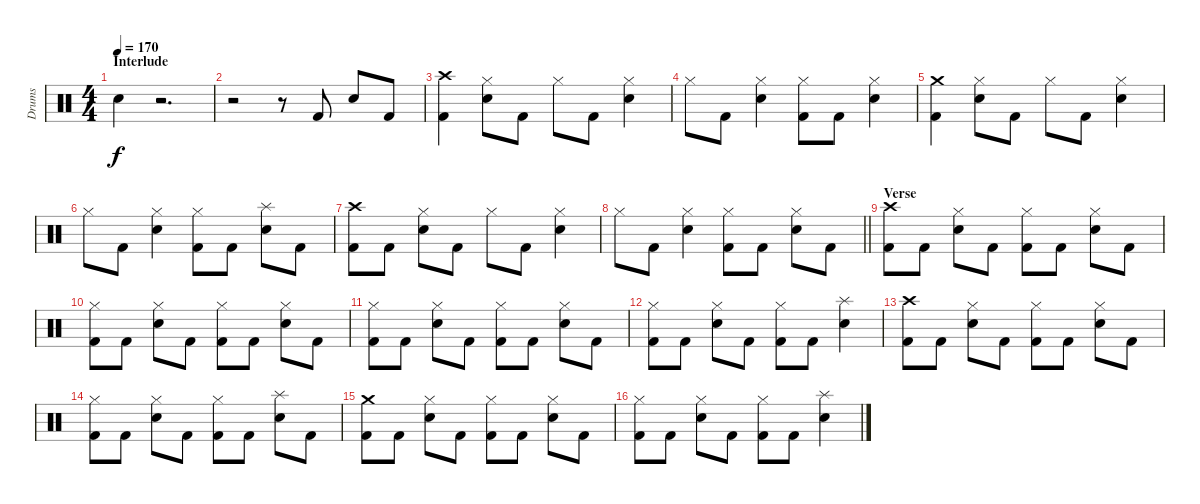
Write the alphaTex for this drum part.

\track ("Drums" "Drums") {instrument percussion}
\staff {score}
\articulation defaults
\ts (4 4)
\section ("" "Interlude")
\tempo 170
\clef neutral
\ks c "Electric Snare (hit)".4{dy f}
r.2{d} |
r.2 r.8 "Kick (hit) 2".8 "Electric Snare (hit)".8 "Kick (hit) 2".8 |
("Kick (hit) 2" "Crash high (hit)").4 ("Hi-Hat (closed)" "Electric Snare (hit)").8 "Kick (hit) 2".8 "Hi-Hat (closed)".8 "Kick (hit) 2".8 ("Hi-Hat (closed)" "Electric Snare (hit)").4 |
"Hi-Hat (closed)".8 "Kick (hit) 2".8 ("Hi-Hat (closed)" "Electric Snare (hit)").4 ("Kick (hit) 2" "Hi-Hat (closed)").8 "Kick (hit) 2".8 ("Hi-Hat (closed)" "Electric Snare (hit)").4 |
("Kick (hit) 2" "Crash medium (hit)").4 ("Hi-Hat (closed)" "Electric Snare (hit)").8 "Kick (hit) 2".8 "Hi-Hat (closed)".8 "Kick (hit) 2".8 ("Hi-Hat (closed)" "Electric Snare (hit)").4 |
"Hi-Hat (closed)".8 "Kick (hit) 2".8 ("Hi-Hat (closed)" "Electric Snare (hit)").4 ("Kick (hit) 2" "Hi-Hat (closed)").8 "Kick (hit) 2".8 ("Splash (hit)" "Electric Snare (hit)").8 "Kick (hit) 2".8 |
("Kick (hit) 2" "Crash high (hit)").8 "Kick (hit) 2".8 ("Hi-Hat (closed)" "Electric Snare (hit)").8 "Kick (hit) 2".8 "Hi-Hat (closed)".8 "Kick (hit) 2".8 ("Hi-Hat (closed)" "Electric Snare (hit)").4 |
\barLineRight lightlight "Hi-Hat (closed)".8 "Kick (hit) 2".8
("Hi-Hat (closed)" "Electric Snare (hit)").4 ("Kick (hit) 2" "Hi-Hat (closed)").8 "Kick (hit) 2".8 ("Hi-Hat (closed)" "Electric Snare (hit)").8 "Kick (hit) 2".8 |
\section ("" "Verse")
("Kick (hit) 2" "Crash high (hit)").8 "Kick (hit) 2".8 ("Hi-Hat (closed)" "Electric Snare (hit)").8 "Kick (hit) 2".8 ("Kick (hit) 2" "Hi-Hat (closed)").8 "Kick (hit) 2".8 ("Hi-Hat (closed)" "Electric Snare (hit)").8 "Kick (hit) 2".8 |
("Kick (hit) 2" "Hi-Hat (closed)").8 "Kick (hit) 2".8 ("Hi-Hat (closed)" "Electric Snare (hit)").8 "Kick (hit) 2".8 ("Kick (hit) 2" "Hi-Hat (closed)").8 "Kick (hit) 2".8 ("Hi-Hat (closed)" "Electric Snare (hit)").8 "Kick (hit) 2".8 |
("Kick (hit) 2" "Hi-Hat (closed)").8 "Kick (hit) 2".8 ("Hi-Hat (closed)" "Electric Snare (hit)").8 "Kick (hit) 2".8 ("Kick (hit) 2" "Hi-Hat (closed)").8 "Kick (hit) 2".8 ("Hi-Hat (closed)" "Electric Snare (hit)").8 "Kick (hit) 2".8 |
("Kick (hit) 2" "Hi-Hat (closed)").8 "Kick (hit) 2".8 ("Hi-Hat (closed)" "Electric Snare (hit)").8 "Kick (hit) 2".8 ("Kick (hit) 2" "Hi-Hat (closed)").8 "Kick (hit) 2".8 ("Splash (hit)" "Electric Snare (hit)").4 |
("Kick (hit) 2" "Crash high (hit)").8 "Kick (hit) 2".8 ("Hi-Hat (closed)" "Electric Snare (hit)").8 "Kick (hit) 2".8 ("Kick (hit) 2" "Hi-Hat (closed)").8 "Kick (hit) 2".8 ("Hi-Hat (closed)" "Electric Snare (hit)").8 "Kick (hit) 2".8 |
("Kick (hit) 2" "Hi-Hat (closed)").8 "Kick (hit) 2".8 ("Hi-Hat (closed)" "Electric Snare (hit)").8 "Kick (hit) 2".8 ("Kick (hit) 2" "Hi-Hat (closed)").8 "Kick (hit) 2".8 ("Splash (hit)" "Electric Snare (hit)").8 "Kick (hit) 2".8 |
("Kick (hit) 2" "Crash medium (hit)").8 "Kick (hit) 2".8 ("Hi-Hat (closed)" "Electric Snare (hit)").8 "Kick (hit) 2".8 ("Kick (hit) 2" "Hi-Hat (closed)").8 "Kick (hit) 2".8 ("Hi-Hat (closed)" "Electric Snare (hit)").8 "Kick (hit) 2".8 |
("Kick (hit) 2" "Hi-Hat (closed)").8 "Kick (hit) 2".8 ("Hi-Hat (closed)" "Electric Snare (hit)").8 "Kick (hit) 2".8 ("Kick (hit) 2" "Hi-Hat (closed)").8 "Kick (hit) 2".8 ("Splash (hit)" "Electric Snare (hit)").4
